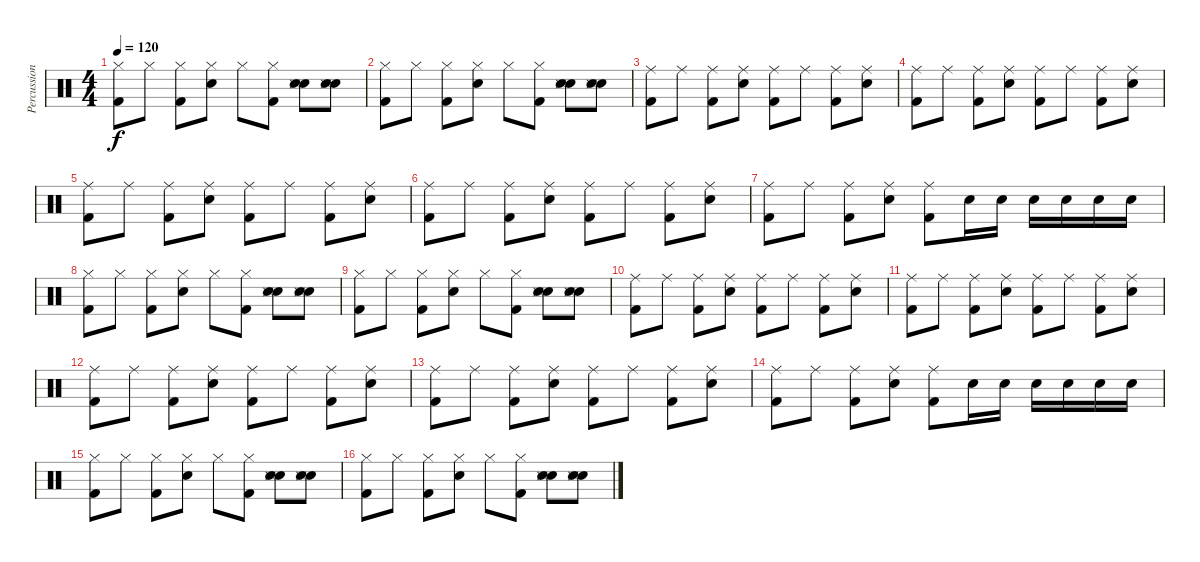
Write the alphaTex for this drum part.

\track ("Percussions" "Percussion") {instrument percussion}
\staff {score}
\articulation defaults
\ts (4 4)
\tempo 120
\clef neutral
\ks c
("Hi-Hat (closed)" "Kick (hit) 2").8{dy f} "Hi-Hat (closed)".8 ("Hi-Hat (closed)" "Kick (hit) 2").8 ("Hi-Hat (closed)" "Electric Snare (hit)").8 "Hi-Hat (closed)".8 ("Hi-Hat (closed)" "Kick (hit) 2").8 ("Hand Clap (hit)" "Hand Clap (hit)" "Snare (side stick) 3").8 ("Hand Clap (hit)" "Hand Clap (hit)" "Snare (side stick) 3").8 |
("Hi-Hat (closed)" "Kick (hit) 2").8 "Hi-Hat (closed)".8 ("Hi-Hat (closed)" "Kick (hit) 2").8 ("Hi-Hat (closed)" "Electric Snare (hit)").8 "Hi-Hat (closed)".8 ("Hi-Hat (closed)" "Kick (hit) 2").8 ("Hand Clap (hit)" "Hand Clap (hit)" "Snare (side stick) 3").8 ("Hand Clap (hit)" "Hand Clap (hit)" "Snare (side stick) 3").8 |
("Ride (middle)" "Kick (hit) 2").8 "Ride (middle)".8 ("Ride (middle)" "Kick (hit) 2").8 ("Ride (middle)" "Electric Snare (hit)").8 ("Ride (middle)" "Kick (hit) 2").8 "Ride (middle)".8 ("Ride (middle)" "Kick (hit) 2").8 ("Ride (middle)" "Electric Snare (hit)").8 |
("Ride (middle)" "Kick (hit) 2").8 "Ride (middle)".8 ("Ride (middle)" "Kick (hit) 2").8 ("Ride (middle)" "Electric Snare (hit)").8 ("Ride (middle)" "Kick (hit) 2").8 "Ride (middle)".8 ("Ride (middle)" "Kick (hit) 2").8 ("Ride (middle)" "Electric Snare (hit)").8 |
("Ride (middle)" "Kick (hit) 2").8 "Ride (middle)".8 ("Ride (middle)" "Kick (hit) 2").8 ("Ride (middle)" "Electric Snare (hit)").8 ("Ride (middle)" "Kick (hit) 2").8 "Ride (middle)".8 ("Ride (middle)" "Kick (hit) 2").8 ("Ride (middle)" "Electric Snare (hit)").8 |
("Ride (middle)" "Kick (hit) 2").8 "Ride (middle)".8 ("Ride (middle)" "Kick (hit) 2").8 ("Ride (middle)" "Electric Snare (hit)").8 ("Ride (middle)" "Kick (hit) 2").8 "Ride (middle)".8 ("Ride (middle)" "Kick (hit) 2").8 ("Ride (middle)" "Electric Snare (hit)").8 |
("Ride (middle)" "Kick (hit) 2").8 "Ride (middle)".8 ("Ride (middle)" "Kick (hit) 2").8 ("Ride (middle)" "Electric Snare (hit)").8 ("Ride (middle)" "Kick (hit) 2").8 "Electric Snare (hit)".16 "Electric Snare (hit)".16 "Electric Snare (hit)".16 "Electric Snare (hit)".16 "Electric Snare (hit)".16 "Electric Snare (hit)".16 |
("Hi-Hat (closed)" "Kick (hit) 2").8 "Hi-Hat (closed)".8 ("Hi-Hat (closed)" "Kick (hit) 2").8 ("Hi-Hat (closed)" "Electric Snare (hit)").8 "Hi-Hat (closed)".8 ("Hi-Hat (closed)" "Kick (hit) 2").8 ("Hand Clap (hit)" "Hand Clap (hit)" "Snare (side stick) 3").8 ("Hand Clap (hit)" "Hand Clap (hit)" "Snare (side stick) 3").8 |
("Hi-Hat (closed)" "Kick (hit) 2").8 "Hi-Hat (closed)".8 ("Hi-Hat (closed)" "Kick (hit) 2").8 ("Hi-Hat (closed)" "Electric Snare (hit)").8 "Hi-Hat (closed)".8 ("Hi-Hat (closed)" "Kick (hit) 2").8 ("Hand Clap (hit)" "Hand Clap (hit)" "Snare (side stick) 3").8 ("Hand Clap (hit)" "Hand Clap (hit)" "Snare (side stick) 3").8 |
("Ride (middle)" "Kick (hit) 2").8 "Ride (middle)".8 ("Ride (middle)" "Kick (hit) 2").8 ("Ride (middle)" "Electric Snare (hit)").8 ("Ride (middle)" "Kick (hit) 2").8 "Ride (middle)".8 ("Ride (middle)" "Kick (hit) 2").8 ("Ride (middle)" "Electric Snare (hit)").8 |
("Ride (middle)" "Kick (hit) 2").8 "Ride (middle)".8 ("Ride (middle)" "Kick (hit) 2").8 ("Ride (middle)" "Electric Snare (hit)").8 ("Ride (middle)" "Kick (hit) 2").8 "Ride (middle)".8 ("Ride (middle)" "Kick (hit) 2").8 ("Ride (middle)" "Electric Snare (hit)").8 |
("Ride (middle)" "Kick (hit) 2").8 "Ride (middle)".8 ("Ride (middle)" "Kick (hit) 2").8 ("Ride (middle)" "Electric Snare (hit)").8 ("Ride (middle)" "Kick (hit) 2").8 "Ride (middle)".8 ("Ride (middle)" "Kick (hit) 2").8 ("Ride (middle)" "Electric Snare (hit)").8 |
("Ride (middle)" "Kick (hit) 2").8 "Ride (middle)".8 ("Ride (middle)" "Kick (hit) 2").8 ("Ride (middle)" "Electric Snare (hit)").8 ("Ride (middle)" "Kick (hit) 2").8 "Ride (middle)".8 ("Ride (middle)" "Kick (hit) 2").8 ("Ride (middle)" "Electric Snare (hit)").8 |
("Ride (middle)" "Kick (hit) 2").8 "Ride (middle)".8 ("Ride (middle)" "Kick (hit) 2").8 ("Ride (middle)" "Electric Snare (hit)").8 ("Ride (middle)" "Kick (hit) 2").8 "Electric Snare (hit)".16 "Electric Snare (hit)".16 "Electric Snare (hit)".16 "Electric Snare (hit)".16 "Electric Snare (hit)".16 "Electric Snare (hit)".16 |
("Hi-Hat (closed)" "Kick (hit) 2").8 "Hi-Hat (closed)".8 ("Hi-Hat (closed)" "Kick (hit) 2").8 ("Hi-Hat (closed)" "Electric Snare (hit)").8 "Hi-Hat (closed)".8 ("Hi-Hat (closed)" "Kick (hit) 2").8 ("Hand Clap (hit)" "Hand Clap (hit)" "Snare (side stick) 3").8 ("Hand Clap (hit)" "Hand Clap (hit)" "Snare (side stick) 3").8 |
("Hi-Hat (closed)" "Kick (hit) 2").8 "Hi-Hat (closed)".8 ("Hi-Hat (closed)" "Kick (hit) 2").8 ("Hi-Hat (closed)" "Electric Snare (hit)").8 "Hi-Hat (closed)".8 ("Hi-Hat (closed)" "Kick (hit) 2").8 ("Hand Clap (hit)" "Hand Clap (hit)" "Snare (side stick) 3").8 ("Hand Clap (hit)" "Hand Clap (hit)" "Snare (side stick) 3").8
